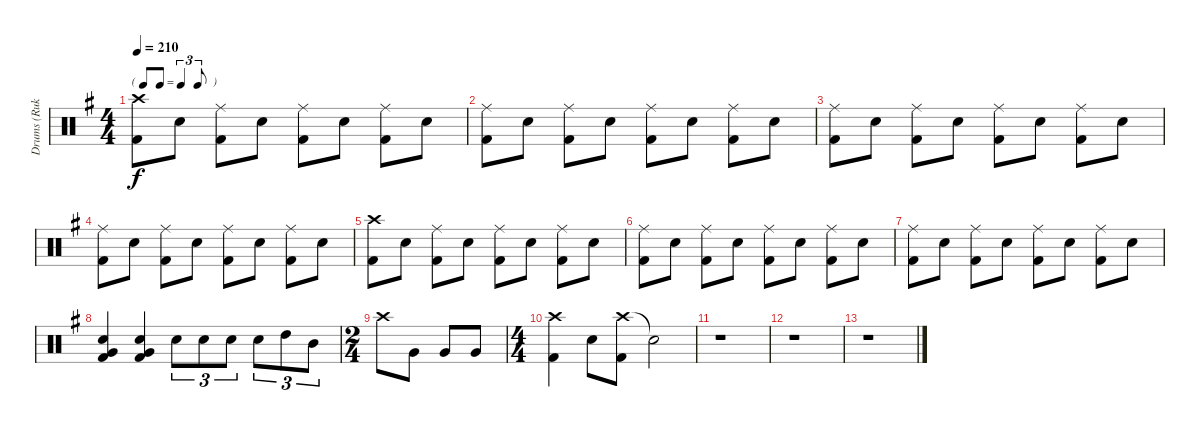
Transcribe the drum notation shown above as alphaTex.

\track ("Drums (Ruka)" "Drums (Ruk") {instrument percussion}
\staff {score}
\articulation defaults
\ts (4 4)
\tf triplet8th
\tempo 210
\clef neutral
\ks g
("Crash high (hit)" "Kick (hit) 2").8{dy f} "Electric Snare (hit)".8 ("Ride (middle)" "Kick (hit) 2").8 "Electric Snare (hit)".8 ("Ride (middle)" "Kick (hit) 2").8 "Electric Snare (hit)".8 ("Ride (middle)" "Kick (hit) 2").8 "Electric Snare (hit)".8 |
("Ride (middle)" "Kick (hit) 2").8 "Electric Snare (hit)".8 ("Ride (middle)" "Kick (hit) 2").8 "Electric Snare (hit)".8 ("Ride (middle)" "Kick (hit) 2").8 "Electric Snare (hit)".8 ("Ride (middle)" "Kick (hit) 2").8 "Electric Snare (hit)".8 |
("Ride (middle)" "Kick (hit) 2").8 "Electric Snare (hit)".8 ("Ride (middle)" "Kick (hit) 2").8 "Electric Snare (hit)".8 ("Ride (middle)" "Kick (hit) 2").8 "Electric Snare (hit)".8 ("Ride (middle)" "Kick (hit) 2").8 "Electric Snare (hit)".8 |
("Ride (middle)" "Kick (hit) 2").8 "Electric Snare (hit)".8 ("Ride (middle)" "Kick (hit) 2").8 "Electric Snare (hit)".8 ("Ride (middle)" "Kick (hit) 2").8 "Electric Snare (hit)".8 ("Ride (middle)" "Kick (hit) 2").8 "Electric Snare (hit)".8 |
("Crash high (hit)" "Kick (hit) 2").8 "Electric Snare (hit)".8 ("Ride (middle)" "Kick (hit) 2").8 "Electric Snare (hit)".8 ("Ride (middle)" "Kick (hit) 2").8 "Electric Snare (hit)".8 ("Ride (middle)" "Kick (hit) 2").8 "Electric Snare (hit)".8 |
("Ride (middle)" "Kick (hit) 2").8 "Electric Snare (hit)".8 ("Ride (middle)" "Kick (hit) 2").8 "Electric Snare (hit)".8 ("Ride (middle)" "Kick (hit) 2").8 "Electric Snare (hit)".8 ("Ride (middle)" "Kick (hit) 2").8 "Electric Snare (hit)".8 |
("Ride (middle)" "Kick (hit) 2").8 "Electric Snare (hit)".8 ("Ride (middle)" "Kick (hit) 2").8 "Electric Snare (hit)".8 ("Ride (middle)" "Kick (hit) 2").8 "Electric Snare (hit)".8 ("Ride (middle)" "Kick (hit) 2").8 "Electric Snare (hit)".8 |
("Electric Snare (hit)" "Very Low Tom (hit)" "Kick (hit) 2").4 ("Electric Snare (hit)" "Very Low Tom (hit)" "Kick (hit) 2").4 "Electric Snare (hit)".8{tu (3 2)} "Electric Snare (hit)".8{tu (3 2)} "Electric Snare (hit)".8{tu (3 2)} "Electric Snare (hit)".8{tu (3 2)} "High Tom (hit)".8{tu (3 2)} "Mid Tom (hit)".8{tu (3 2)} |
\ts (2 4)
"Crash high (hit)".8 "Very Low Tom (hit)".8 "Very Low Tom (hit)".8 "Very Low Tom (hit)".8 |
\ts (4 4)
("Crash high (hit)" "Kick (hit) 2").4 "Electric Snare (hit)".8 ("Crash high (hit)" "Kick (hit) 2").8 "Snare (hit)"{t}.2 |
r.1 |
r.1 |
r.1
